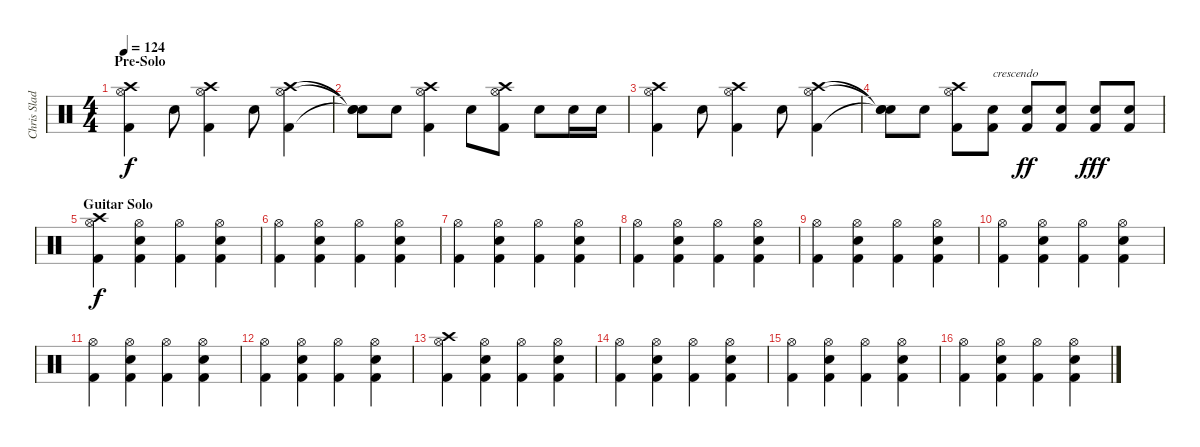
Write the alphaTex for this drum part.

\track ("Chris Slade" "Chris Slad") {instrument percussion}
\staff {score}
\articulation defaults
\ts (4 4)
\section ("" "Pre-Solo")
\tempo 124
\clef neutral
\ks c
("Hi-Hat (open)" "Crash high (hit)" "Kick (hit) 2").4{dy f} "Snare (hit) 2".8 ("Hi-Hat (open)" "Crash high (hit)" "Kick (hit) 2").4 "Snare (hit) 2".8 ("Hi-Hat (open)" "Crash high (hit)" "Kick (hit) 2").4 |
("Snare (hit)"{t} "Snare (hit)"{t} "Snare (hit)"{t}).8 "Snare (hit) 2".8 ("Hi-Hat (open)" "Crash high (hit)" "Kick (hit) 2").4 "Snare (hit) 2".8 ("Hi-Hat (open)" "Crash high (hit)" "Kick (hit) 2").8 "Snare (hit) 2".8 "Snare (hit) 2".16 "Snare (hit) 2".16 |
("Hi-Hat (open)" "Crash high (hit)" "Kick (hit) 2").4 "Snare (hit) 2".8 ("Hi-Hat (open)" "Crash high (hit)" "Kick (hit) 2").4 "Snare (hit) 2".8 ("Hi-Hat (open)" "Crash high (hit)" "Kick (hit) 2").4 |
("Snare (hit)"{t} "Snare (hit)"{t} "Snare (hit)"{t}).8 "Snare (hit) 2".8 ("Hi-Hat (open)" "Crash high (hit)" "Kick (hit) 2").8 ("Snare (hit) 2" "Kick (hit) 2").8{txt "crescendo"} ("Snare (hit) 2" "Kick (hit) 2").8{dy ff} ("Snare (hit) 2" "Kick (hit) 2").8 ("Snare (hit) 2" "Kick (hit) 2").8{dy fff} ("Snare (hit) 2" "Kick (hit) 2").8 |
\section ("" "Guitar Solo")
("Hi-Hat (open)" "Crash high (hit)" "Kick (hit) 2").4{dy f} ("Hi-Hat (open)" "Snare (hit) 2" "Kick (hit) 2").4 ("Hi-Hat (open)" "Kick (hit) 2").4 ("Hi-Hat (open)" "Snare (hit) 2" "Kick (hit) 2").4 |
("Hi-Hat (open)" "Kick (hit) 2").4 ("Hi-Hat (open)" "Snare (hit) 2" "Kick (hit) 2").4 ("Hi-Hat (open)" "Kick (hit) 2").4 ("Hi-Hat (open)" "Snare (hit) 2" "Kick (hit) 2").4 |
("Hi-Hat (open)" "Kick (hit) 2").4 ("Hi-Hat (open)" "Snare (hit) 2" "Kick (hit) 2").4 ("Hi-Hat (open)" "Kick (hit) 2").4 ("Hi-Hat (open)" "Snare (hit) 2" "Kick (hit) 2").4 |
("Hi-Hat (open)" "Kick (hit) 2").4 ("Hi-Hat (open)" "Snare (hit) 2" "Kick (hit) 2").4 ("Hi-Hat (open)" "Kick (hit) 2").4 ("Hi-Hat (open)" "Snare (hit) 2" "Kick (hit) 2").4 |
("Hi-Hat (open)" "Kick (hit) 2").4 ("Hi-Hat (open)" "Snare (hit) 2" "Kick (hit) 2").4 ("Hi-Hat (open)" "Kick (hit) 2").4 ("Hi-Hat (open)" "Snare (hit) 2" "Kick (hit) 2").4 |
("Hi-Hat (open)" "Kick (hit) 2").4 ("Hi-Hat (open)" "Snare (hit) 2" "Kick (hit) 2").4 ("Hi-Hat (open)" "Kick (hit) 2").4 ("Hi-Hat (open)" "Snare (hit) 2" "Kick (hit) 2").4 |
("Hi-Hat (open)" "Kick (hit) 2").4 ("Hi-Hat (open)" "Snare (hit) 2" "Kick (hit) 2").4 ("Hi-Hat (open)" "Kick (hit) 2").4 ("Hi-Hat (open)" "Snare (hit) 2" "Kick (hit) 2").4 |
("Hi-Hat (open)" "Kick (hit) 2").4 ("Hi-Hat (open)" "Snare (hit) 2" "Kick (hit) 2").4 ("Hi-Hat (open)" "Kick (hit) 2").4 ("Hi-Hat (open)" "Snare (hit) 2" "Kick (hit) 2").4 |
("Hi-Hat (open)" "Crash high (hit)" "Kick (hit) 2").4 ("Hi-Hat (open)" "Snare (hit) 2" "Kick (hit) 2").4 ("Hi-Hat (open)" "Kick (hit) 2").4 ("Hi-Hat (open)" "Snare (hit) 2" "Kick (hit) 2").4 |
("Hi-Hat (open)" "Kick (hit) 2").4 ("Hi-Hat (open)" "Snare (hit) 2" "Kick (hit) 2").4 ("Hi-Hat (open)" "Kick (hit) 2").4 ("Hi-Hat (open)" "Snare (hit) 2" "Kick (hit) 2").4 |
("Hi-Hat (open)" "Kick (hit) 2").4 ("Hi-Hat (open)" "Snare (hit) 2" "Kick (hit) 2").4 ("Hi-Hat (open)" "Kick (hit) 2").4 ("Hi-Hat (open)" "Snare (hit) 2" "Kick (hit) 2").4 |
("Hi-Hat (open)" "Kick (hit) 2").4 ("Hi-Hat (open)" "Snare (hit) 2" "Kick (hit) 2").4 ("Hi-Hat (open)" "Kick (hit) 2").4 ("Hi-Hat (open)" "Snare (hit) 2" "Kick (hit) 2").4
